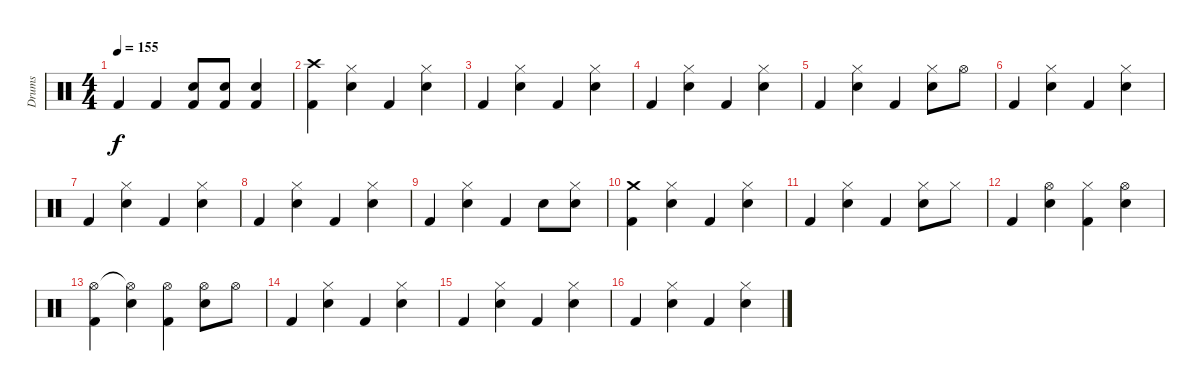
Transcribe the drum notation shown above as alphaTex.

\track ("Drums" "Drums") {instrument percussion}
\staff {score}
\articulation defaults
\ts (4 4)
\tempo 155
\clef neutral
\ks c "Kick (hit) 2".4{dy f} "Kick (hit) 2".4
("Kick (hit) 2" "Electric Snare (hit)").8 ("Kick (hit) 2" "Electric Snare (hit)").8 ("Kick (hit) 2" "Electric Snare (hit)").4 |
("Kick (hit) 2" "Crash high (hit)").4 ("Electric Snare (hit)" "Hi-Hat (closed)").4 "Kick (hit) 2".4 ("Electric Snare (hit)" "Hi-Hat (closed)").4 |
"Kick (hit) 2".4 ("Electric Snare (hit)" "Hi-Hat (closed)").4 "Kick (hit) 2".4 ("Electric Snare (hit)" "Hi-Hat (closed)").4 |
"Kick (hit) 2".4 ("Electric Snare (hit)" "Hi-Hat (closed)").4 "Kick (hit) 2".4 ("Electric Snare (hit)" "Hi-Hat (closed)").4 |
"Kick (hit) 2".4 ("Electric Snare (hit)" "Hi-Hat (closed)").4 "Kick (hit) 2".4 ("Electric Snare (hit)" "Hi-Hat (closed)").8 "Hi-Hat (open)".8 |
"Kick (hit) 2".4 ("Electric Snare (hit)" "Hi-Hat (closed)").4 "Kick (hit) 2".4 ("Electric Snare (hit)" "Hi-Hat (closed)").4 |
"Kick (hit) 2".4 ("Electric Snare (hit)" "Hi-Hat (closed)").4 "Kick (hit) 2".4 ("Electric Snare (hit)" "Hi-Hat (closed)").4 |
"Kick (hit) 2".4 ("Electric Snare (hit)" "Hi-Hat (closed)").4 "Kick (hit) 2".4 ("Electric Snare (hit)" "Hi-Hat (closed)").4 |
"Kick (hit) 2".4 ("Electric Snare (hit)" "Hi-Hat (closed)").4 "Kick (hit) 2".4 "Electric Snare (hit)".8 ("Electric Snare (hit)" "Hi-Hat (closed)").8 |
("Kick (hit) 2" "Crash medium (hit)").4 ("Electric Snare (hit)" "Hi-Hat (closed)").4 "Kick (hit) 2".4 ("Electric Snare (hit)" "Hi-Hat (closed)").4 |
"Kick (hit) 2".4 ("Electric Snare (hit)" "Hi-Hat (closed)").4 "Kick (hit) 2".4 ("Electric Snare (hit)" "Hi-Hat (closed)").8 "Hi-Hat (closed)".8 |
"Kick (hit) 2".4 ("Electric Snare (hit)" "Hi-Hat (open)").4 ("Kick (hit) 2" "Hi-Hat (closed)").4 ("Electric Snare (hit)" "Hi-Hat (open)").4 |
("Kick (hit) 2" "Hi-Hat (open)").4 ("Electric Snare (hit)" "Hi-Hat (open)"{t}).4 ("Kick (hit) 2" "Hi-Hat (open)").4 ("Electric Snare (hit)" "Hi-Hat (open)").8 "Hi-Hat (open)".8 |
"Kick (hit) 2".4 ("Electric Snare (hit)" "Hi-Hat (closed)").4 "Kick (hit) 2".4 ("Electric Snare (hit)" "Hi-Hat (closed)").4 |
"Kick (hit) 2".4 ("Electric Snare (hit)" "Hi-Hat (closed)").4 "Kick (hit) 2".4 ("Electric Snare (hit)" "Hi-Hat (closed)").4 |
"Kick (hit) 2".4 ("Electric Snare (hit)" "Hi-Hat (closed)").4 "Kick (hit) 2".4 ("Electric Snare (hit)" "Hi-Hat (closed)").4
